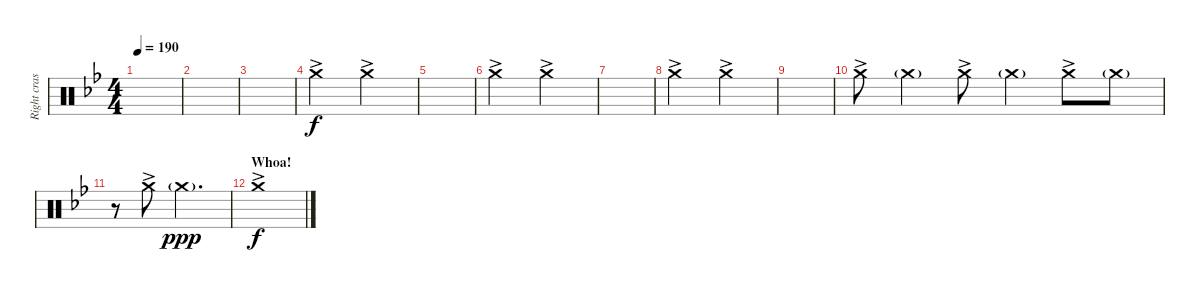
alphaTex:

\track ("Right crash" "Right cras") {instrument percussion}
\staff {score}
\articulation defaults
\ts (4 4)
\tempo 190
\clef neutral
\ks bb
|
|
|
"Crash medium (hit)"{ac}.2 "Crash medium (hit)"{ac}.2 |
|
"Crash medium (hit)"{ac}.2 "Crash medium (hit)"{ac}.2 |
|
"Crash medium (hit)"{ac}.2 "Crash medium (hit)"{ac}.2 |
|
"Crash medium (hit)"{ac}.8 "Crash medium (hit)"{g}.4 "Crash medium (hit)"{ac}.8 "Crash medium (hit)"{g}.4 "Crash medium (hit)"{ac}.8 "Crash medium (hit)"{g}.8 |
r.8 "Crash medium (hit)"{ac}.8 "Crash medium (hit)"{g}.2{d dy ppp} |
\section ("" "Whoa!")
"Crash medium (hit)"{ac}.1{dy f}
